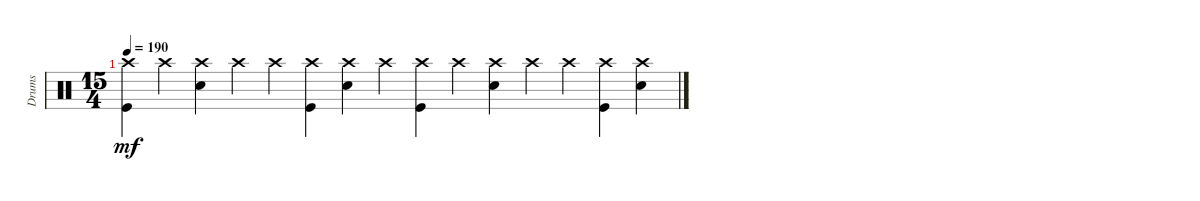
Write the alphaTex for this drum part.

\track ("Drums" "Drums") {instrument percussion}
\staff {score}
\articulation defaults
\ts (15 4)
\tempo 190
\clef neutral
\ks c
("Crash high (hit)" "Kick (hit)").4{dy mf} "Crash high (hit)".4 ("Snare (hit) 2" "Crash high (hit)").4 "Crash high (hit)".4 "Crash high (hit)".4 ("Crash high (hit)" "Kick (hit)").4 ("Snare (hit) 2" "Crash high (hit)").4 "Crash high (hit)".4 ("Crash high (hit)" "Kick (hit)").4 "Crash high (hit)".4 ("Snare (hit) 2" "Crash high (hit)").4 "Crash high (hit)".4 "Crash high (hit)".4 ("Crash high (hit)" "Kick (hit)").4 ("Snare (hit) 2" "Crash high (hit)").4
